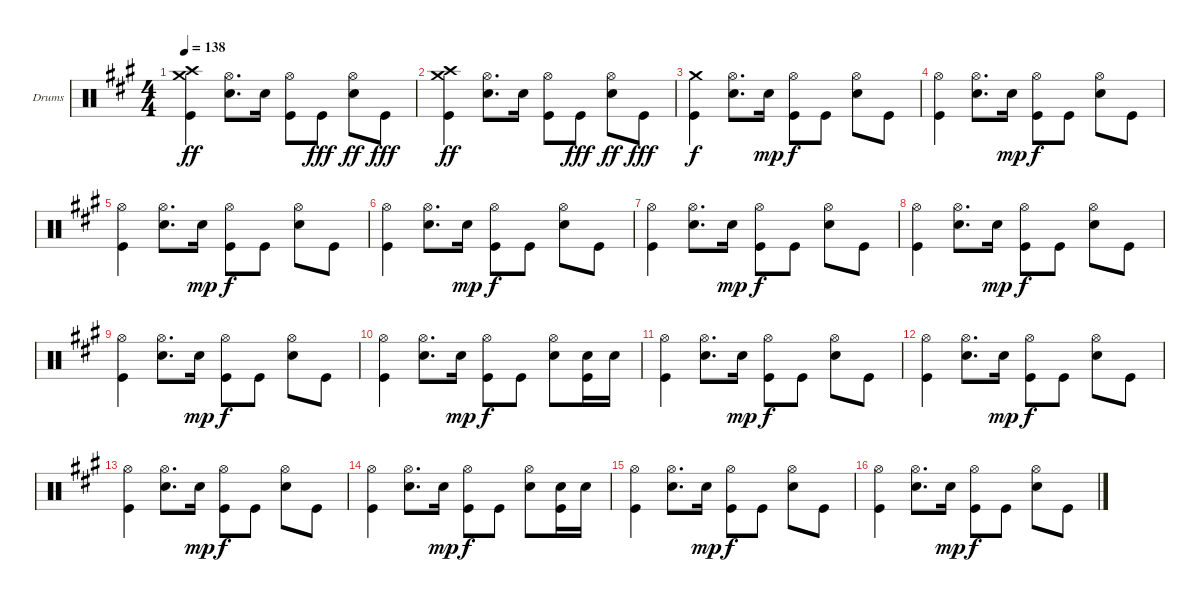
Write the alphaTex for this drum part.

\defaultSystemsLayout 4
\bracketExtendMode groupsimilarinstruments
\firstSystemTrackNameOrientation horizontal
\otherSystemsTrackNameOrientation horizontal
\track ("Drumkit" "Drums") {instrument percussion}
\staff {score}
\articulation defaults
\ts (4 4)
\tempo 138
\clef neutral
\scale
1.05801
\ks a
("Crash medium (hit)" "Crash high (hit)" "Kick (hit)").4{dy ff} ("Hi-Hat (open)" "Snare (hit) 2").8{d} "Snare (hit) 2".16 ("Hi-Hat (open)" "Kick (hit)").8 "Kick (hit)".8{dy fff} ("Hi-Hat (open)" "Snare (hit) 2").8{dy ff} "Kick (hit)".8{dy fff} |
\scale
0.941992 ("Crash medium (hit)" "Crash high (hit)" "Kick (hit)").4{dy ff} ("Hi-Hat (open)" "Snare (hit) 2").8{d} "Snare (hit) 2".16 ("Hi-Hat (open)" "Kick (hit)").8 "Kick (hit)".8{dy fff} ("Hi-Hat (open)" "Snare (hit) 2").8{dy ff} "Kick (hit)".8{dy fff} |
\scale
1.05801 ("Crash medium (hit)" "Kick (hit)").4{dy f} ("Hi-Hat (open)" "Snare (hit) 2").8{d} "Snare (hit) 2".16{dy mp} ("Hi-Hat (open)" "Kick (hit)").8{dy f} "Kick (hit)".8 ("Hi-Hat (open)" "Snare (hit) 2").8 "Kick (hit)".8 |
\scale
0.941992 ("Hi-Hat (open)" "Kick (hit)").4 ("Hi-Hat (open)" "Snare (hit) 2").8{d} "Snare (hit) 2".16{dy mp} ("Hi-Hat (open)" "Kick (hit)").8{dy f} "Kick (hit)".8 ("Hi-Hat (open)" "Snare (hit) 2").8 "Kick (hit)".8 |
\scale
1.05801 ("Hi-Hat (open)" "Kick (hit)").4 ("Hi-Hat (open)" "Snare (hit) 2").8{d} "Snare (hit) 2".16{dy mp} ("Hi-Hat (open)" "Kick (hit)").8{dy f} "Kick (hit)".8 ("Hi-Hat (open)" "Snare (hit) 2").8 "Kick (hit)".8 |
\scale
0.941992 ("Hi-Hat (open)" "Kick (hit)").4 ("Hi-Hat (open)" "Snare (hit) 2").8{d} "Snare (hit) 2".16{dy mp} ("Hi-Hat (open)" "Kick (hit)").8{dy f} "Kick (hit)".8 ("Hi-Hat (open)" "Snare (hit) 2").8 "Kick (hit)".8 |
\scale
1.05801 ("Hi-Hat (open)" "Kick (hit)").4 ("Hi-Hat (open)" "Snare (hit) 2").8{d} "Snare (hit) 2".16{dy mp} ("Hi-Hat (open)" "Kick (hit)").8{dy f} "Kick (hit)".8 ("Hi-Hat (open)" "Snare (hit) 2").8 "Kick (hit)".8 |
\scale
0.941992 ("Hi-Hat (open)" "Kick (hit)").4 ("Hi-Hat (open)" "Snare (hit) 2").8{d} "Snare (hit) 2".16{dy mp} ("Hi-Hat (open)" "Kick (hit)").8{dy f} "Kick (hit)".8 ("Hi-Hat (open)" "Snare (hit) 2").8 "Kick (hit)".8 |
\scale
1.05801 ("Hi-Hat (open)" "Kick (hit)").4 ("Hi-Hat (open)" "Snare (hit) 2").8{d} "Snare (hit) 2".16{dy mp} ("Hi-Hat (open)" "Kick (hit)").8{dy f} "Kick (hit)".8 ("Hi-Hat (open)" "Snare (hit) 2").8 "Kick (hit)".8 |
\scale
0.941992 ("Hi-Hat (open)" "Kick (hit)").4 ("Hi-Hat (open)" "Snare (hit) 2").8{d} "Snare (hit) 2".16{dy mp} ("Hi-Hat (open)" "Kick (hit)").8{dy f} "Kick (hit)".8 ("Hi-Hat (open)" "Snare (hit) 2").8 ("Snare (hit) 2" "Kick (hit)").16 "Snare (hit) 2".16 |
\scale
1.05801 ("Hi-Hat (open)" "Kick (hit)").4 ("Hi-Hat (open)" "Snare (hit) 2").8{d} "Snare (hit) 2".16{dy mp} ("Hi-Hat (open)" "Kick (hit)").8{dy f} "Kick (hit)".8 ("Hi-Hat (open)" "Snare (hit) 2").8 "Kick (hit)".8 |
\scale
0.941992 ("Hi-Hat (open)" "Kick (hit)").4 ("Hi-Hat (open)" "Snare (hit) 2").8{d} "Snare (hit) 2".16{dy mp} ("Hi-Hat (open)" "Kick (hit)").8{dy f} "Kick (hit)".8 ("Hi-Hat (open)" "Snare (hit) 2").8 "Kick (hit)".8 |
\scale
1.05801 ("Hi-Hat (open)" "Kick (hit)").4 ("Hi-Hat (open)" "Snare (hit) 2").8{d} "Snare (hit) 2".16{dy mp} ("Hi-Hat (open)" "Kick (hit)").8{dy f} "Kick (hit)".8 ("Hi-Hat (open)" "Snare (hit) 2").8 "Kick (hit)".8 |
\scale
0.941992 ("Hi-Hat (open)" "Kick (hit)").4 ("Hi-Hat (open)" "Snare (hit) 2").8{d} "Snare (hit) 2".16{dy mp} ("Hi-Hat (open)" "Kick (hit)").8{dy f} "Kick (hit)".8 ("Hi-Hat (open)" "Snare (hit) 2").8 ("Snare (hit) 2" "Kick (hit)").16 "Snare (hit) 2".16 |
\scale
1.05801 ("Hi-Hat (open)" "Kick (hit)").4 ("Hi-Hat (open)" "Snare (hit) 2").8{d} "Snare (hit) 2".16{dy mp} ("Hi-Hat (open)" "Kick (hit)").8{dy f} "Kick (hit)".8 ("Hi-Hat (open)" "Snare (hit) 2").8 "Kick (hit)".8 |
\scale
0.941992 ("Hi-Hat (open)" "Kick (hit)").4 ("Hi-Hat (open)" "Snare (hit) 2").8{d} "Snare (hit) 2".16{dy mp} ("Hi-Hat (open)" "Kick (hit)").8{dy f} "Kick (hit)".8 ("Hi-Hat (open)" "Snare (hit) 2").8 "Kick (hit)".8
